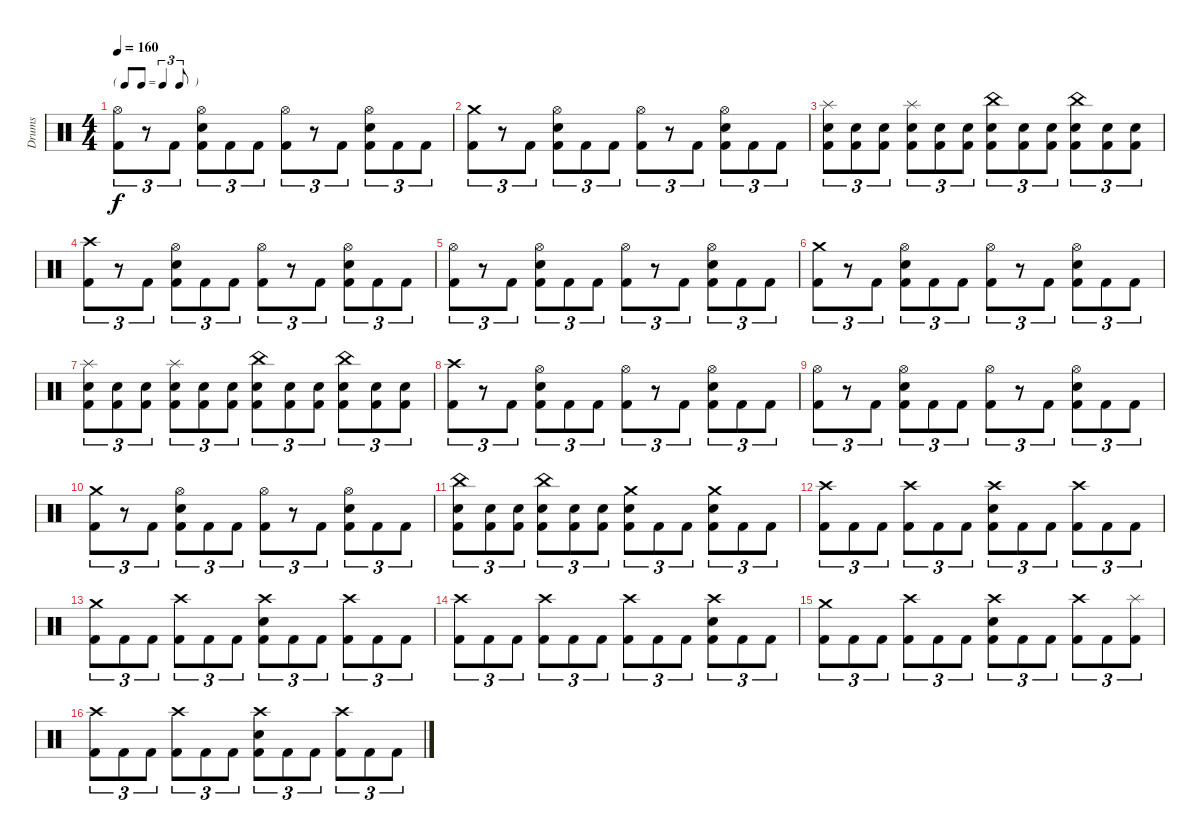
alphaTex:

\track ("Drums" "Drums") {instrument percussion}
\staff {score}
\articulation defaults
\ts (4 4)
\tf triplet8th
\tempo 160
\clef neutral
\ks c
("Hi-Hat (open)" "Kick (hit) 2").8{tu (3 2) dy f} r.8{tu (3 2)} "Kick (hit) 2".8{tu (3 2)} ("Hi-Hat (open)" "Electric Snare (hit)" "Kick (hit) 2").8{tu (3 2)} "Kick (hit) 2".8{tu (3 2)} "Kick (hit) 2".8{tu (3 2)} ("Hi-Hat (open)" "Kick (hit) 2").8{tu (3 2)} r.8{tu (3 2)} "Kick (hit) 2".8{tu (3 2)} ("Hi-Hat (open)" "Electric Snare (hit)" "Kick (hit) 2").8{tu (3 2)} "Kick (hit) 2".8{tu (3 2)} "Kick (hit) 2".8{tu (3 2)} |
("Crash medium (hit)" "Kick (hit) 2").8{tu (3 2)} r.8{tu (3 2)} "Kick (hit) 2".8{tu (3 2)} ("Hi-Hat (open)" "Electric Snare (hit)" "Kick (hit) 2").8{tu (3 2)} "Kick (hit) 2".8{tu (3 2)} "Kick (hit) 2".8{tu (3 2)} ("Hi-Hat (open)" "Kick (hit) 2").8{tu (3 2)} r.8{tu (3 2)} "Kick (hit) 2".8{tu (3 2)} ("Hi-Hat (open)" "Electric Snare (hit)" "Kick (hit) 2").8{tu (3 2)} "Kick (hit) 2".8{tu (3 2)} "Kick (hit) 2".8{tu (3 2)} |
("Splash (hit)" "Electric Snare (hit)" "Kick (hit) 2").8{tu (3 2)} ("Electric Snare (hit)" "Kick (hit) 2").8{tu (3 2)} ("Electric Snare (hit)" "Kick (hit) 2").8{tu (3 2)} ("Splash (hit)" "Electric Snare (hit)" "Kick (hit) 2").8{tu (3 2)} ("Electric Snare (hit)" "Kick (hit) 2").8{tu (3 2)} ("Electric Snare (hit)" "Kick (hit) 2").8{tu (3 2)} ("China (hit)" "Electric Snare (hit)" "Kick (hit) 2").8{tu (3 2)} ("Electric Snare (hit)" "Kick (hit) 2").8{tu (3 2)} ("Electric Snare (hit)" "Kick (hit) 2").8{tu (3 2)} ("China (hit)" "Electric Snare (hit)" "Kick (hit) 2").8{tu (3 2)} ("Electric Snare (hit)" "Kick (hit) 2").8{tu (3 2)} ("Electric Snare (hit)" "Kick (hit) 2").8{tu (3 2)} |
("Crash high (hit)" "Kick (hit) 2").8{tu (3 2)} r.8{tu (3 2)} "Kick (hit) 2".8{tu (3 2)} ("Hi-Hat (open)" "Electric Snare (hit)" "Kick (hit) 2").8{tu (3 2)} "Kick (hit) 2".8{tu (3 2)} "Kick (hit) 2".8{tu (3 2)} ("Hi-Hat (open)" "Kick (hit) 2").8{tu (3 2)} r.8{tu (3 2)} "Kick (hit) 2".8{tu (3 2)} ("Hi-Hat (open)" "Electric Snare (hit)" "Kick (hit) 2").8{tu (3 2)} "Kick (hit) 2".8{tu (3 2)} "Kick (hit) 2".8{tu (3 2)} |
("Hi-Hat (open)" "Kick (hit) 2").8{tu (3 2)} r.8{tu (3 2)} "Kick (hit) 2".8{tu (3 2)} ("Hi-Hat (open)" "Electric Snare (hit)" "Kick (hit) 2").8{tu (3 2)} "Kick (hit) 2".8{tu (3 2)} "Kick (hit) 2".8{tu (3 2)} ("Hi-Hat (open)" "Kick (hit) 2").8{tu (3 2)} r.8{tu (3 2)} "Kick (hit) 2".8{tu (3 2)} ("Hi-Hat (open)" "Electric Snare (hit)" "Kick (hit) 2").8{tu (3 2)} "Kick (hit) 2".8{tu (3 2)} "Kick (hit) 2".8{tu (3 2)} |
("Crash medium (hit)" "Kick (hit) 2").8{tu (3 2)} r.8{tu (3 2)} "Kick (hit) 2".8{tu (3 2)} ("Hi-Hat (open)" "Electric Snare (hit)" "Kick (hit) 2").8{tu (3 2)} "Kick (hit) 2".8{tu (3 2)} "Kick (hit) 2".8{tu (3 2)} ("Hi-Hat (open)" "Kick (hit) 2").8{tu (3 2)} r.8{tu (3 2)} "Kick (hit) 2".8{tu (3 2)} ("Hi-Hat (open)" "Electric Snare (hit)" "Kick (hit) 2").8{tu (3 2)} "Kick (hit) 2".8{tu (3 2)} "Kick (hit) 2".8{tu (3 2)} |
("Splash (hit)" "Electric Snare (hit)" "Kick (hit) 2").8{tu (3 2)} ("Electric Snare (hit)" "Kick (hit) 2").8{tu (3 2)} ("Electric Snare (hit)" "Kick (hit) 2").8{tu (3 2)} ("Splash (hit)" "Electric Snare (hit)" "Kick (hit) 2").8{tu (3 2)} ("Electric Snare (hit)" "Kick (hit) 2").8{tu (3 2)} ("Electric Snare (hit)" "Kick (hit) 2").8{tu (3 2)} ("China (hit)" "Electric Snare (hit)" "Kick (hit) 2").8{tu (3 2)} ("Electric Snare (hit)" "Kick (hit) 2").8{tu (3 2)} ("Electric Snare (hit)" "Kick (hit) 2").8{tu (3 2)} ("China (hit)" "Electric Snare (hit)" "Kick (hit) 2").8{tu (3 2)} ("Electric Snare (hit)" "Kick (hit) 2").8{tu (3 2)} ("Electric Snare (hit)" "Kick (hit) 2").8{tu (3 2)} |
("Crash high (hit)" "Kick (hit) 2").8{tu (3 2)} r.8{tu (3 2)} "Kick (hit) 2".8{tu (3 2)} ("Hi-Hat (open)" "Electric Snare (hit)" "Kick (hit) 2").8{tu (3 2)} "Kick (hit) 2".8{tu (3 2)} "Kick (hit) 2".8{tu (3 2)} ("Hi-Hat (open)" "Kick (hit) 2").8{tu (3 2)} r.8{tu (3 2)} "Kick (hit) 2".8{tu (3 2)} ("Hi-Hat (open)" "Electric Snare (hit)" "Kick (hit) 2").8{tu (3 2)} "Kick (hit) 2".8{tu (3 2)} "Kick (hit) 2".8{tu (3 2)} |
("Hi-Hat (open)" "Kick (hit) 2").8{tu (3 2)} r.8{tu (3 2)} "Kick (hit) 2".8{tu (3 2)} ("Hi-Hat (open)" "Electric Snare (hit)" "Kick (hit) 2").8{tu (3 2)} "Kick (hit) 2".8{tu (3 2)} "Kick (hit) 2".8{tu (3 2)} ("Hi-Hat (open)" "Kick (hit) 2").8{tu (3 2)} r.8{tu (3 2)} "Kick (hit) 2".8{tu (3 2)} ("Hi-Hat (open)" "Electric Snare (hit)" "Kick (hit) 2").8{tu (3 2)} "Kick (hit) 2".8{tu (3 2)} "Kick (hit) 2".8{tu (3 2)} |
("Crash medium (hit)" "Kick (hit) 2").8{tu (3 2)} r.8{tu (3 2)} "Kick (hit) 2".8{tu (3 2)} ("Hi-Hat (open)" "Electric Snare (hit)" "Kick (hit) 2").8{tu (3 2)} "Kick (hit) 2".8{tu (3 2)} "Kick (hit) 2".8{tu (3 2)} ("Hi-Hat (open)" "Kick (hit) 2").8{tu (3 2)} r.8{tu (3 2)} "Kick (hit) 2".8{tu (3 2)} ("Hi-Hat (open)" "Electric Snare (hit)" "Kick (hit) 2").8{tu (3 2)} "Kick (hit) 2".8{tu (3 2)} "Kick (hit) 2".8{tu (3 2)} |
("China (hit)" "Electric Snare (hit)" "Kick (hit) 2").8{tu (3 2)} ("Electric Snare (hit)" "Kick (hit) 2").8{tu (3 2)} ("Electric Snare (hit)" "Kick (hit) 2").8{tu (3 2)} ("China (hit)" "Electric Snare (hit)" "Kick (hit) 2").8{tu (3 2)} ("Electric Snare (hit)" "Kick (hit) 2").8{tu (3 2)} ("Electric Snare (hit)" "Kick (hit) 2").8{tu (3 2)} ("Crash medium (hit)" "Electric Snare (hit)" "Kick (hit) 2").8{tu (3 2)} "Kick (hit) 2".8{tu (3 2)} "Kick (hit) 2".8{tu (3 2)} ("Crash medium (hit)" "Electric Snare (hit)" "Kick (hit) 2").8{tu (3 2)} "Kick (hit) 2".8{tu (3 2)} "Kick (hit) 2".8{tu (3 2)} |
("Crash high (hit)" "Kick (hit) 2").8{tu (3 2)} "Kick (hit) 2".8{tu (3 2)} "Kick (hit) 2".8{tu (3 2)} ("Crash high (hit)" "Kick (hit) 2").8{tu (3 2)} "Kick (hit) 2".8{tu (3 2)} "Kick (hit) 2".8{tu (3 2)} ("Crash high (hit)" "Electric Snare (hit)" "Kick (hit) 2").8{tu (3 2)} "Kick (hit) 2".8{tu (3 2)} "Kick (hit) 2".8{tu (3 2)} ("Crash high (hit)" "Kick (hit) 2").8{tu (3 2)} "Kick (hit) 2".8{tu (3 2)} "Kick (hit) 2".8{tu (3 2)} |
("Crash medium (hit)" "Kick (hit) 2").8{tu (3 2)} "Kick (hit) 2".8{tu (3 2)} "Kick (hit) 2".8{tu (3 2)} ("Crash high (hit)" "Kick (hit) 2").8{tu (3 2)} "Kick (hit) 2".8{tu (3 2)} "Kick (hit) 2".8{tu (3 2)} ("Crash high (hit)" "Electric Snare (hit)" "Kick (hit) 2").8{tu (3 2)} "Kick (hit) 2".8{tu (3 2)} "Kick (hit) 2".8{tu (3 2)} ("Crash high (hit)" "Kick (hit) 2").8{tu (3 2)} "Kick (hit) 2".8{tu (3 2)} "Kick (hit) 2".8{tu (3 2)} |
("Crash high (hit)" "Kick (hit) 2").8{tu (3 2)} "Kick (hit) 2".8{tu (3 2)} "Kick (hit) 2".8{tu (3 2)} ("Crash high (hit)" "Kick (hit) 2").8{tu (3 2)} "Kick (hit) 2".8{tu (3 2)} "Kick (hit) 2".8{tu (3 2)} ("Crash high (hit)" "Kick (hit) 2").8{tu (3 2)} "Kick (hit) 2".8{tu (3 2)} "Kick (hit) 2".8{tu (3 2)} ("Crash high (hit)" "Electric Snare (hit)" "Kick (hit) 2").8{tu (3 2)} "Kick (hit) 2".8{tu (3 2)} "Kick (hit) 2".8{tu (3 2)} |
("Crash medium (hit)" "Kick (hit) 2").8{tu (3 2)} "Kick (hit) 2".8{tu (3 2)} "Kick (hit) 2".8{tu (3 2)} ("Crash high (hit)" "Kick (hit) 2").8{tu (3 2)} "Kick (hit) 2".8{tu (3 2)} "Kick (hit) 2".8{tu (3 2)} ("Crash high (hit)" "Electric Snare (hit)" "Kick (hit) 2").8{tu (3 2)} "Kick (hit) 2".8{tu (3 2)} "Kick (hit) 2".8{tu (3 2)} ("Crash high (hit)" "Kick (hit) 2").8{tu (3 2)} "Kick (hit) 2".8{tu (3 2)} ("Splash (hit)" "Kick (hit) 2").8{tu (3 2)} |
("Crash high (hit)" "Kick (hit) 2").8{tu (3 2)} "Kick (hit) 2".8{tu (3 2)} "Kick (hit) 2".8{tu (3 2)} ("Crash high (hit)" "Kick (hit) 2").8{tu (3 2)} "Kick (hit) 2".8{tu (3 2)} "Kick (hit) 2".8{tu (3 2)} ("Crash high (hit)" "Electric Snare (hit)" "Kick (hit) 2").8{tu (3 2)} "Kick (hit) 2".8{tu (3 2)} "Kick (hit) 2".8{tu (3 2)} ("Crash high (hit)" "Kick (hit) 2").8{tu (3 2)} "Kick (hit) 2".8{tu (3 2)} "Kick (hit) 2".8{tu (3 2)}
